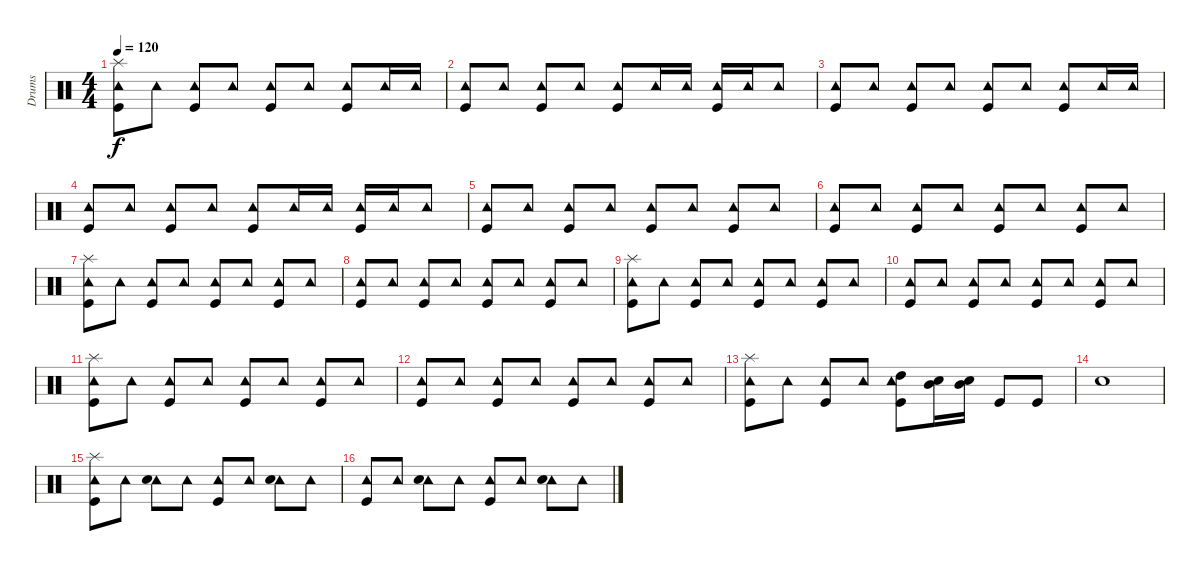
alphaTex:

\track ("Drums" "Drums") {instrument percussion}
\staff {score}
\articulation defaults
\ts (4 4)
\tempo 120
\clef neutral
\ks c
("Tambourine (hit)" "Kick (hit)" "Splash (hit)").8{dy f} "Tambourine (hit)".8 ("Tambourine (hit)" "Kick (hit)").8 "Tambourine (hit)".8 ("Tambourine (hit)" "Kick (hit)").8 "Tambourine (hit)".8 ("Tambourine (hit)" "Kick (hit)").8 "Tambourine (hit)".16 "Tambourine (hit)".16 |
("Tambourine (hit)" "Kick (hit)").8 "Tambourine (hit)".8 ("Tambourine (hit)" "Kick (hit)").8 "Tambourine (hit)".8 ("Tambourine (hit)" "Kick (hit)").8 "Tambourine (hit)".16 "Tambourine (hit)".16 ("Tambourine (hit)" "Kick (hit)").16 "Tambourine (hit)".16 "Tambourine (hit)".8 |
("Tambourine (hit)" "Kick (hit)").8 "Tambourine (hit)".8 ("Tambourine (hit)" "Kick (hit)").8 "Tambourine (hit)".8 ("Tambourine (hit)" "Kick (hit)").8 "Tambourine (hit)".8 ("Tambourine (hit)" "Kick (hit)").8 "Tambourine (hit)".16 "Tambourine (hit)".16 |
("Tambourine (hit)" "Kick (hit)").8 "Tambourine (hit)".8 ("Tambourine (hit)" "Kick (hit)").8 "Tambourine (hit)".8 ("Tambourine (hit)" "Kick (hit)").8 "Tambourine (hit)".16 "Tambourine (hit)".16 ("Tambourine (hit)" "Kick (hit)").16 "Tambourine (hit)".16 "Tambourine (hit)".8 |
("Tambourine (hit)" "Kick (hit)").8 "Tambourine (hit)".8 ("Tambourine (hit)" "Kick (hit)").8 "Tambourine (hit)".8 ("Tambourine (hit)" "Kick (hit)").8 "Tambourine (hit)".8 ("Tambourine (hit)" "Kick (hit)").8 "Tambourine (hit)".8 |
("Tambourine (hit)" "Kick (hit)").8 "Tambourine (hit)".8 ("Tambourine (hit)" "Kick (hit)").8 "Tambourine (hit)".8 ("Tambourine (hit)" "Kick (hit)").8 "Tambourine (hit)".8 ("Tambourine (hit)" "Kick (hit)").8 "Tambourine (hit)".8 |
("Tambourine (hit)" "Kick (hit)" "Splash (hit)").8 "Tambourine (hit)".8 ("Tambourine (hit)" "Kick (hit)").8 "Tambourine (hit)".8 ("Tambourine (hit)" "Kick (hit)").8 "Tambourine (hit)".8 ("Tambourine (hit)" "Kick (hit)").8 "Tambourine (hit)".8 |
("Tambourine (hit)" "Kick (hit)").8 "Tambourine (hit)".8 ("Tambourine (hit)" "Kick (hit)").8 "Tambourine (hit)".8 ("Tambourine (hit)" "Kick (hit)").8 "Tambourine (hit)".8 ("Tambourine (hit)" "Kick (hit)").8 "Tambourine (hit)".8 |
("Tambourine (hit)" "Kick (hit)" "Splash (hit)").8 "Tambourine (hit)".8 ("Tambourine (hit)" "Kick (hit)").8 "Tambourine (hit)".8 ("Tambourine (hit)" "Kick (hit)").8 "Tambourine (hit)".8 ("Tambourine (hit)" "Kick (hit)").8 "Tambourine (hit)".8 |
("Tambourine (hit)" "Kick (hit)").8 "Tambourine (hit)".8 ("Tambourine (hit)" "Kick (hit)").8 "Tambourine (hit)".8 ("Tambourine (hit)" "Kick (hit)").8 "Tambourine (hit)".8 ("Tambourine (hit)" "Kick (hit)").8 "Tambourine (hit)".8 |
("Tambourine (hit)" "Kick (hit)" "Splash (hit)").8 "Tambourine (hit)".8 ("Tambourine (hit)" "Kick (hit)").8 "Tambourine (hit)".8 ("Tambourine (hit)" "Kick (hit)").8 "Tambourine (hit)".8 ("Tambourine (hit)" "Kick (hit)").8 "Tambourine (hit)".8 |
("Tambourine (hit)" "Kick (hit)").8 "Tambourine (hit)".8 ("Tambourine (hit)" "Kick (hit)").8 "Tambourine (hit)".8 ("Tambourine (hit)" "Kick (hit)").8 "Tambourine (hit)".8 ("Tambourine (hit)" "Kick (hit)").8 "Tambourine (hit)".8 |
("Tambourine (hit)" "Kick (hit)" "Splash (hit)").8 "Tambourine (hit)".8 ("Tambourine (hit)" "Kick (hit)").8 "Tambourine (hit)".8 ("Tambourine (hit)" "Kick (hit)" "High Tom (hit)").8 ("Mid Tom (hit)" "Snare (hit) 2").16 ("Mid Tom (hit)" "Snare (hit) 2").16 "Kick (hit)".8 "Kick (hit)".8 |
"Snare (hit) 2".1 |
("Tambourine (hit)" "Kick (hit)" "Splash (hit)").8 "Tambourine (hit)".8 ("Tambourine (hit)" "Snare (hit) 2").8 "Tambourine (hit)".8 ("Tambourine (hit)" "Kick (hit)").8 "Tambourine (hit)".8 ("Tambourine (hit)" "Snare (hit) 2").8 "Tambourine (hit)".8 |
("Tambourine (hit)" "Kick (hit)").8 "Tambourine (hit)".8 ("Tambourine (hit)" "Snare (hit) 2").8 "Tambourine (hit)".8 ("Tambourine (hit)" "Kick (hit)").8 "Tambourine (hit)".8 ("Tambourine (hit)" "Snare (hit) 2").8 "Tambourine (hit)".8
